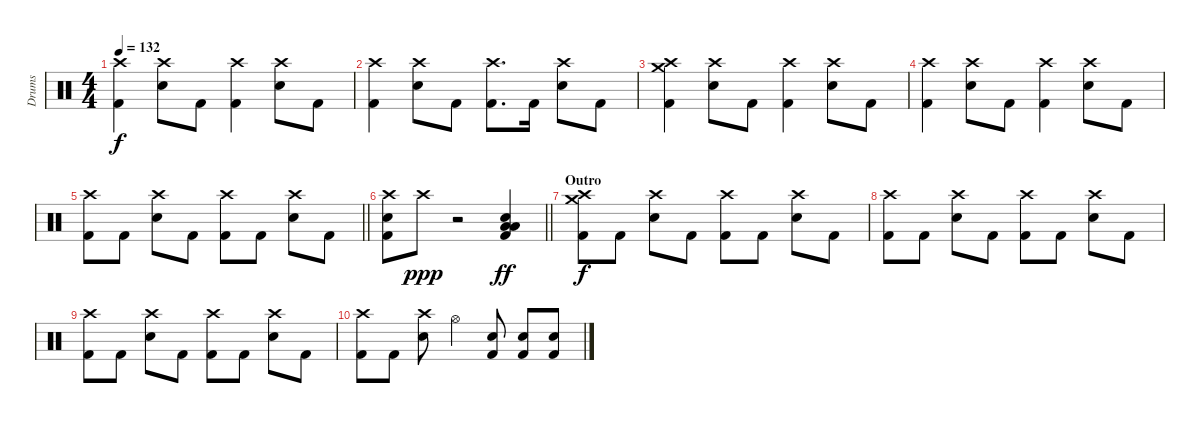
\track ("Drums" "Drums") {instrument percussion}
\staff {score}
\articulation defaults
\ts (4 4)
\tempo 132
\clef neutral
\ks c
("Crash high (hit)" "Kick (hit) 2").4{dy f} ("Crash high (hit)" "Electric Snare (hit)").8 "Kick (hit) 2".8 ("Crash high (hit)" "Kick (hit) 2").4 ("Crash high (hit)" "Electric Snare (hit)").8 "Kick (hit) 2".8 |
("Crash high (hit)" "Kick (hit) 2").4 ("Crash high (hit)" "Electric Snare (hit)").8 "Kick (hit) 2".8 ("Crash high (hit)" "Kick (hit) 2").8{d} "Kick (hit) 2".16 ("Crash high (hit)" "Electric Snare (hit)").8 "Kick (hit) 2".8 |
("Crash medium (hit)" "Crash high (hit)" "Kick (hit) 2").4 ("Crash high (hit)" "Electric Snare (hit)").8 "Kick (hit) 2".8 ("Crash high (hit)" "Kick (hit) 2").4 ("Crash high (hit)" "Electric Snare (hit)").8 "Kick (hit) 2".8 |
("Crash high (hit)" "Kick (hit) 2").4 ("Crash high (hit)" "Electric Snare (hit)").8 "Kick (hit) 2".8 ("Crash high (hit)" "Kick (hit) 2").4 ("Crash high (hit)" "Electric Snare (hit)").8 "Kick (hit) 2".8 |
\barLineRight lightlight
("Crash high (hit)" "Kick (hit) 2").8 "Kick (hit) 2".8 ("Crash high (hit)" "Electric Snare (hit)").8 "Kick (hit) 2".8 ("Crash high (hit)" "Kick (hit) 2").8 "Kick (hit) 2".8 ("Crash high (hit)" "Electric Snare (hit)").8 "Kick (hit) 2".8 |
\barLineRight lightlight
("Crash high (hit)" "Electric Snare (hit)" "Kick (hit) 2").8 "Crash high (hit)".8{dy ppp} r.2 ("Electric Snare (hit)" "Low Floor Tom (hit)" "Low Floor Tom (hit)" "Kick (hit) 2").4{dy ff} |
\section ("" "Outro")
("Crash medium (hit)" "Crash high (hit)" "Kick (hit) 2").8{dy f} "Kick (hit) 2".8 ("Crash high (hit)" "Electric Snare (hit)").8 "Kick (hit) 2".8 ("Crash high (hit)" "Kick (hit) 2").8 "Kick (hit) 2".8 ("Crash high (hit)" "Electric Snare (hit)").8 "Kick (hit) 2".8 |
("Crash high (hit)" "Kick (hit) 2").8 "Kick (hit) 2".8 ("Crash high (hit)" "Electric Snare (hit)").8 "Kick (hit) 2".8 ("Crash high (hit)" "Kick (hit) 2").8 "Kick (hit) 2".8 ("Crash high (hit)" "Electric Snare (hit)").8 "Kick (hit) 2".8 |
("Crash high (hit)" "Kick (hit) 2").8 "Kick (hit) 2".8 ("Crash high (hit)" "Electric Snare (hit)").8 "Kick (hit) 2".8 ("Crash high (hit)" "Kick (hit) 2").8 "Kick (hit) 2".8 ("Crash high (hit)" "Electric Snare (hit)").8 "Kick (hit) 2".8 |
("Crash high (hit)" "Kick (hit) 2").8 "Kick (hit) 2".8 ("Crash high (hit)" "Electric Snare (hit)").8 "Hi-Hat (open)".4 ("Electric Snare (hit)" "Kick (hit) 2").8 ("Electric Snare (hit)" "Kick (hit) 2").8 ("Electric Snare (hit)" "Kick (hit) 2").8
